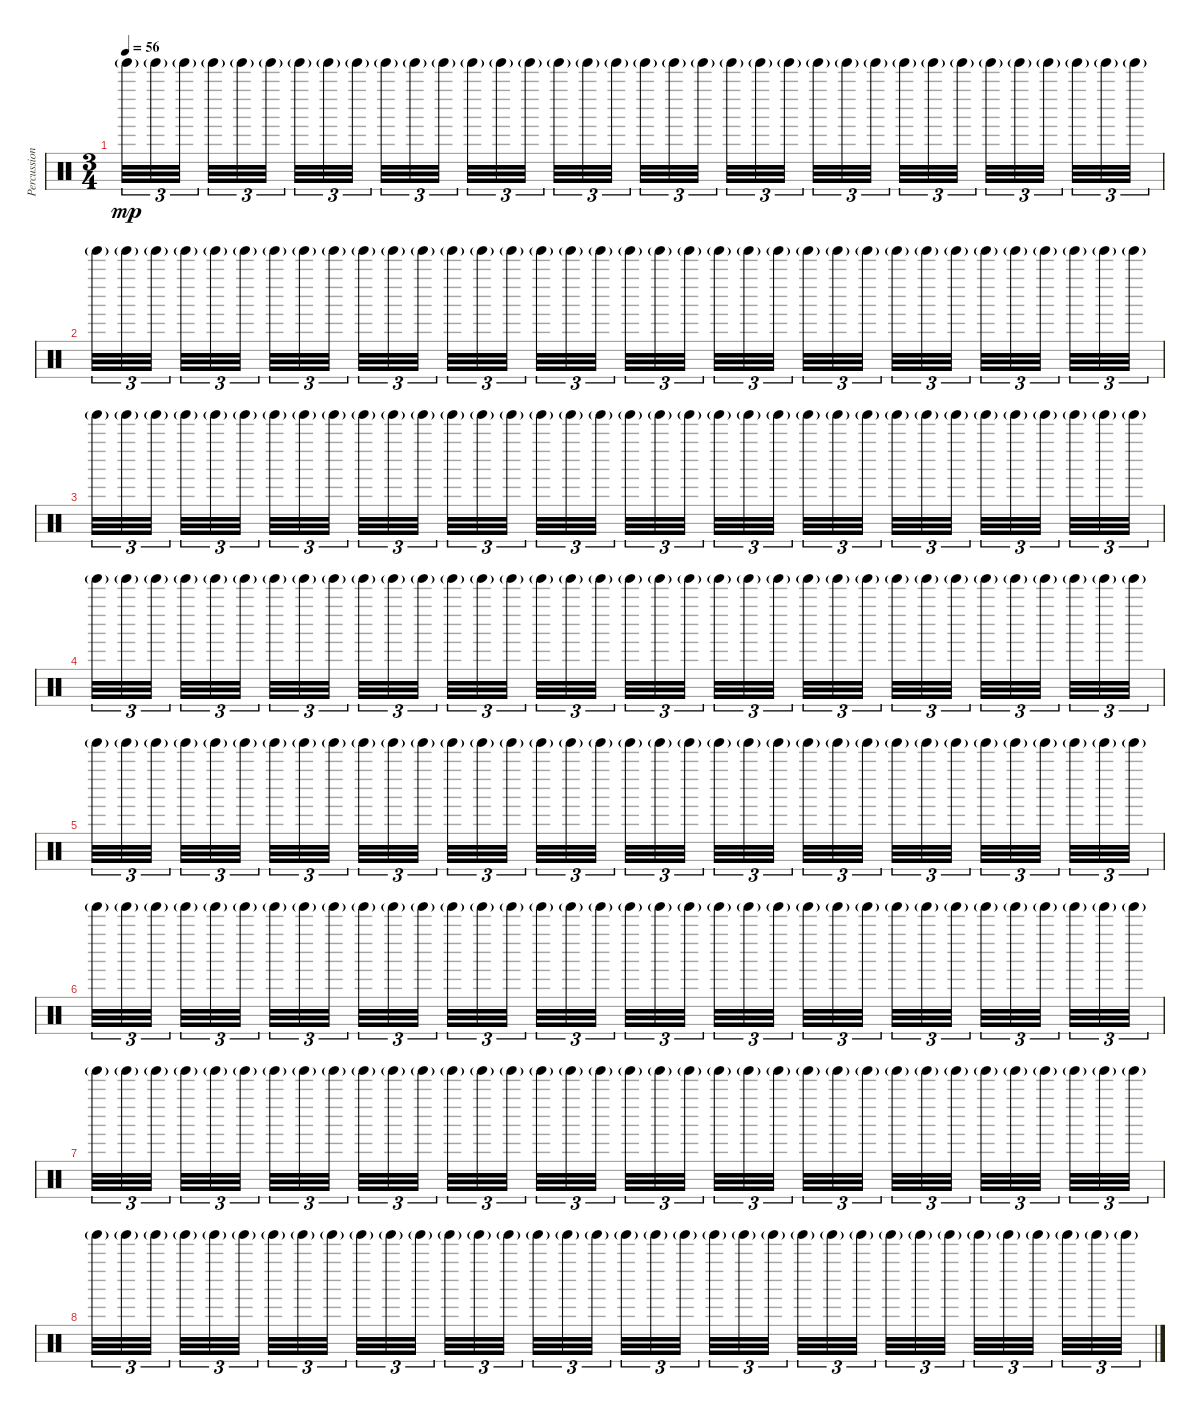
\track ("Percussion" "Percussion") {instrument percussion}
\staff {score}
\articulation defaults
\ts (3 4)
\tempo 56
\clef neutral
\ks c "Tinkle Bell (hit)"{g}.32{tu (3 2) dy mp} "Tinkle Bell (hit)"{g}.32{tu (3 2)} "Tinkle Bell (hit)"{g}.32{tu (3 2) beam splitsecondary} "Tinkle Bell (hit)"{g}.32{tu (3 2)} "Tinkle Bell (hit)"{g}.32{tu (3 2)} "Tinkle Bell (hit)"{g}.32{tu (3 2) beam splitsecondary} "Tinkle Bell (hit)"{g}.32{tu (3 2)} "Tinkle Bell (hit)"{g}.32{tu (3 2)} "Tinkle Bell (hit)"{g}.32{tu (3 2) beam splitsecondary} "Tinkle Bell (hit)"{g}.32{tu (3 2)} "Tinkle Bell (hit)"{g}.32{tu (3 2)} "Tinkle Bell (hit)"{g}.32{tu (3 2)} "Tinkle Bell (hit)"{g}.32{tu (3 2)} "Tinkle Bell (hit)"{g}.32{tu (3 2)} "Tinkle Bell (hit)"{g}.32{tu (3 2) beam splitsecondary} "Tinkle Bell (hit)"{g}.32{tu (3 2)} "Tinkle Bell (hit)"{g}.32{tu (3 2)} "Tinkle Bell (hit)"{g}.32{tu (3 2) beam splitsecondary} "Tinkle Bell (hit)"{g}.32{tu (3 2)} "Tinkle Bell (hit)"{g}.32{tu (3 2)} "Tinkle Bell (hit)"{g}.32{tu (3 2) beam splitsecondary} "Tinkle Bell (hit)"{g}.32{tu (3 2)} "Tinkle Bell (hit)"{g}.32{tu (3 2)} "Tinkle Bell (hit)"{g}.32{tu (3 2)} "Tinkle Bell (hit)"{g}.32{tu (3 2)} "Tinkle Bell (hit)"{g}.32{tu (3 2)} "Tinkle Bell (hit)"{g}.32{tu (3 2) beam splitsecondary} "Tinkle Bell (hit)"{g}.32{tu (3 2)} "Tinkle Bell (hit)"{g}.32{tu (3 2)} "Tinkle Bell (hit)"{g}.32{tu (3 2) beam splitsecondary} "Tinkle Bell (hit)"{g}.32{tu (3 2)} "Tinkle Bell (hit)"{g}.32{tu (3 2)} "Tinkle Bell (hit)"{g}.32{tu (3 2) beam splitsecondary} "Tinkle Bell (hit)"{g}.32{tu (3 2)} "Tinkle Bell (hit)"{g}.32{tu (3 2)} "Tinkle Bell (hit)"{g}.32{tu (3 2)}
|
"Tinkle Bell (hit)"{g}.32{tu (3 2)} "Tinkle Bell (hit)"{g}.32{tu (3 2)} "Tinkle Bell (hit)"{g}.32{tu (3 2) beam splitsecondary} "Tinkle Bell (hit)"{g}.32{tu (3 2)} "Tinkle Bell (hit)"{g}.32{tu (3 2)} "Tinkle Bell (hit)"{g}.32{tu (3 2) beam splitsecondary} "Tinkle Bell (hit)"{g}.32{tu (3 2)} "Tinkle Bell (hit)"{g}.32{tu (3 2)} "Tinkle Bell (hit)"{g}.32{tu (3 2) beam splitsecondary} "Tinkle Bell (hit)"{g}.32{tu (3 2)} "Tinkle Bell (hit)"{g}.32{tu (3 2)} "Tinkle Bell (hit)"{g}.32{tu (3 2)} "Tinkle Bell (hit)"{g}.32{tu (3 2)} "Tinkle Bell (hit)"{g}.32{tu (3 2) volume 4} "Tinkle Bell (hit)"{g}.32{tu (3 2) beam splitsecondary} "Tinkle Bell (hit)"{g}.32{tu (3 2)} "Tinkle Bell (hit)"{g}.32{tu (3 2)} "Tinkle Bell (hit)"{g}.32{tu (3 2) beam splitsecondary} "Tinkle Bell (hit)"{g}.32{tu (3 2)} "Tinkle Bell (hit)"{g}.32{tu (3 2)} "Tinkle Bell (hit)"{g}.32{tu (3 2) beam splitsecondary} "Tinkle Bell (hit)"{g}.32{tu (3 2)} "Tinkle Bell (hit)"{g}.32{tu (3 2)} "Tinkle Bell (hit)"{g}.32{tu (3 2)} "Tinkle Bell (hit)"{g}.32{tu (3 2)} "Tinkle Bell (hit)"{g}.32{tu (3 2)} "Tinkle Bell (hit)"{g}.32{tu (3 2) beam splitsecondary} "Tinkle Bell (hit)"{g}.32{tu (3 2)} "Tinkle Bell (hit)"{g}.32{tu (3 2)} "Tinkle Bell (hit)"{g}.32{tu (3 2) beam splitsecondary} "Tinkle Bell (hit)"{g}.32{tu (3 2)} "Tinkle Bell (hit)"{g}.32{tu (3 2)} "Tinkle Bell (hit)"{g}.32{tu (3 2) beam splitsecondary} "Tinkle Bell (hit)"{g}.32{tu (3 2)} "Tinkle Bell (hit)"{g}.32{tu (3 2)} "Tinkle Bell (hit)"{g}.32{tu (3 2)} |
"Tinkle Bell (hit)"{g}.32{tu (3 2)} "Tinkle Bell (hit)"{g}.32{tu (3 2)} "Tinkle Bell (hit)"{g}.32{tu (3 2) beam splitsecondary} "Tinkle Bell (hit)"{g}.32{tu (3 2)} "Tinkle Bell (hit)"{g}.32{tu (3 2)} "Tinkle Bell (hit)"{g}.32{tu (3 2) beam splitsecondary} "Tinkle Bell (hit)"{g}.32{tu (3 2)} "Tinkle Bell (hit)"{g}.32{tu (3 2)} "Tinkle Bell (hit)"{g}.32{tu (3 2) beam splitsecondary} "Tinkle Bell (hit)"{g}.32{tu (3 2)} "Tinkle Bell (hit)"{g}.32{tu (3 2)} "Tinkle Bell (hit)"{g}.32{tu (3 2)} "Tinkle Bell (hit)"{g}.32{tu (3 2)} "Tinkle Bell (hit)"{g}.32{tu (3 2)} "Tinkle Bell (hit)"{g}.32{tu (3 2) beam splitsecondary} "Tinkle Bell (hit)"{g}.32{tu (3 2)} "Tinkle Bell (hit)"{g}.32{tu (3 2)} "Tinkle Bell (hit)"{g}.32{tu (3 2) beam splitsecondary} "Tinkle Bell (hit)"{g}.32{tu (3 2)} "Tinkle Bell (hit)"{g}.32{tu (3 2)} "Tinkle Bell (hit)"{g}.32{tu (3 2) beam splitsecondary} "Tinkle Bell (hit)"{g}.32{tu (3 2)} "Tinkle Bell (hit)"{g}.32{tu (3 2)} "Tinkle Bell (hit)"{g}.32{tu (3 2)} "Tinkle Bell (hit)"{g}.32{tu (3 2)} "Tinkle Bell (hit)"{g}.32{tu (3 2)} "Tinkle Bell (hit)"{g}.32{tu (3 2) beam splitsecondary} "Tinkle Bell (hit)"{g}.32{tu (3 2)} "Tinkle Bell (hit)"{g}.32{tu (3 2)} "Tinkle Bell (hit)"{g}.32{tu (3 2) beam splitsecondary} "Tinkle Bell (hit)"{g}.32{tu (3 2)} "Tinkle Bell (hit)"{g}.32{tu (3 2)} "Tinkle Bell (hit)"{g}.32{tu (3 2) beam splitsecondary} "Tinkle Bell (hit)"{g}.32{tu (3 2)} "Tinkle Bell (hit)"{g}.32{tu (3 2)} "Tinkle Bell (hit)"{g}.32{tu (3 2)} |
"Tinkle Bell (hit)"{g}.32{tu (3 2)} "Tinkle Bell (hit)"{g}.32{tu (3 2)} "Tinkle Bell (hit)"{g}.32{tu (3 2) beam splitsecondary} "Tinkle Bell (hit)"{g}.32{tu (3 2)} "Tinkle Bell (hit)"{g}.32{tu (3 2)} "Tinkle Bell (hit)"{g}.32{tu (3 2) beam splitsecondary} "Tinkle Bell (hit)"{g}.32{tu (3 2)} "Tinkle Bell (hit)"{g}.32{tu (3 2)} "Tinkle Bell (hit)"{g}.32{tu (3 2) beam splitsecondary} "Tinkle Bell (hit)"{g}.32{tu (3 2)} "Tinkle Bell (hit)"{g}.32{tu (3 2)} "Tinkle Bell (hit)"{g}.32{tu (3 2)} "Tinkle Bell (hit)"{g}.32{tu (3 2)} "Tinkle Bell (hit)"{g}.32{tu (3 2)} "Tinkle Bell (hit)"{g}.32{tu (3 2) beam splitsecondary} "Tinkle Bell (hit)"{g}.32{tu (3 2)} "Tinkle Bell (hit)"{g}.32{tu (3 2)} "Tinkle Bell (hit)"{g}.32{tu (3 2) beam splitsecondary} "Tinkle Bell (hit)"{g}.32{tu (3 2)} "Tinkle Bell (hit)"{g}.32{tu (3 2)} "Tinkle Bell (hit)"{g}.32{tu (3 2) beam splitsecondary} "Tinkle Bell (hit)"{g}.32{tu (3 2)} "Tinkle Bell (hit)"{g}.32{tu (3 2)} "Tinkle Bell (hit)"{g}.32{tu (3 2)} "Tinkle Bell (hit)"{g}.32{tu (3 2)} "Tinkle Bell (hit)"{g}.32{tu (3 2)} "Tinkle Bell (hit)"{g}.32{tu (3 2) beam splitsecondary} "Tinkle Bell (hit)"{g}.32{tu (3 2)} "Tinkle Bell (hit)"{g}.32{tu (3 2)} "Tinkle Bell (hit)"{g}.32{tu (3 2) beam splitsecondary} "Tinkle Bell (hit)"{g}.32{tu (3 2)} "Tinkle Bell (hit)"{g}.32{tu (3 2)} "Tinkle Bell (hit)"{g}.32{tu (3 2) beam splitsecondary} "Tinkle Bell (hit)"{g}.32{tu (3 2)} "Tinkle Bell (hit)"{g}.32{tu (3 2)} "Tinkle Bell (hit)"{g}.32{tu (3 2)} |
"Tinkle Bell (hit)"{g}.32{tu (3 2)} "Tinkle Bell (hit)"{g}.32{tu (3 2)} "Tinkle Bell (hit)"{g}.32{tu (3 2) beam splitsecondary} "Tinkle Bell (hit)"{g}.32{tu (3 2)} "Tinkle Bell (hit)"{g}.32{tu (3 2)} "Tinkle Bell (hit)"{g}.32{tu (3 2) beam splitsecondary} "Tinkle Bell (hit)"{g}.32{tu (3 2)} "Tinkle Bell (hit)"{g}.32{tu (3 2)} "Tinkle Bell (hit)"{g}.32{tu (3 2) beam splitsecondary} "Tinkle Bell (hit)"{g}.32{tu (3 2)} "Tinkle Bell (hit)"{g}.32{tu (3 2)} "Tinkle Bell (hit)"{g}.32{tu (3 2)} "Tinkle Bell (hit)"{g}.32{tu (3 2)} "Tinkle Bell (hit)"{g}.32{tu (3 2)} "Tinkle Bell (hit)"{g}.32{tu (3 2) beam splitsecondary} "Tinkle Bell (hit)"{g}.32{tu (3 2)} "Tinkle Bell (hit)"{g}.32{tu (3 2)} "Tinkle Bell (hit)"{g}.32{tu (3 2) beam splitsecondary} "Tinkle Bell (hit)"{g}.32{tu (3 2)} "Tinkle Bell (hit)"{g}.32{tu (3 2)} "Tinkle Bell (hit)"{g}.32{tu (3 2) beam splitsecondary} "Tinkle Bell (hit)"{g}.32{tu (3 2)} "Tinkle Bell (hit)"{g}.32{tu (3 2)} "Tinkle Bell (hit)"{g}.32{tu (3 2)} "Tinkle Bell (hit)"{g}.32{tu (3 2)} "Tinkle Bell (hit)"{g}.32{tu (3 2)} "Tinkle Bell (hit)"{g}.32{tu (3 2) beam splitsecondary} "Tinkle Bell (hit)"{g}.32{tu (3 2)} "Tinkle Bell (hit)"{g}.32{tu (3 2)} "Tinkle Bell (hit)"{g}.32{tu (3 2) beam splitsecondary} "Tinkle Bell (hit)"{g}.32{tu (3 2)} "Tinkle Bell (hit)"{g}.32{tu (3 2)} "Tinkle Bell (hit)"{g}.32{tu (3 2) beam splitsecondary} "Tinkle Bell (hit)"{g}.32{tu (3 2)} "Tinkle Bell (hit)"{g}.32{tu (3 2)} "Tinkle Bell (hit)"{g}.32{tu (3 2)} |
"Tinkle Bell (hit)"{g}.32{tu (3 2)} "Tinkle Bell (hit)"{g}.32{tu (3 2)} "Tinkle Bell (hit)"{g}.32{tu (3 2) beam splitsecondary} "Tinkle Bell (hit)"{g}.32{tu (3 2)} "Tinkle Bell (hit)"{g}.32{tu (3 2)} "Tinkle Bell (hit)"{g}.32{tu (3 2) beam splitsecondary} "Tinkle Bell (hit)"{g}.32{tu (3 2)} "Tinkle Bell (hit)"{g}.32{tu (3 2)} "Tinkle Bell (hit)"{g}.32{tu (3 2) beam splitsecondary} "Tinkle Bell (hit)"{g}.32{tu (3 2)} "Tinkle Bell (hit)"{g}.32{tu (3 2)} "Tinkle Bell (hit)"{g}.32{tu (3 2)} "Tinkle Bell (hit)"{g}.32{tu (3 2)} "Tinkle Bell (hit)"{g}.32{tu (3 2)} "Tinkle Bell (hit)"{g}.32{tu (3 2) beam splitsecondary} "Tinkle Bell (hit)"{g}.32{tu (3 2)} "Tinkle Bell (hit)"{g}.32{tu (3 2)} "Tinkle Bell (hit)"{g}.32{tu (3 2) beam splitsecondary} "Tinkle Bell (hit)"{g}.32{tu (3 2)} "Tinkle Bell (hit)"{g}.32{tu (3 2)} "Tinkle Bell (hit)"{g}.32{tu (3 2) beam splitsecondary} "Tinkle Bell (hit)"{g}.32{tu (3 2)} "Tinkle Bell (hit)"{g}.32{tu (3 2)} "Tinkle Bell (hit)"{g}.32{tu (3 2)} "Tinkle Bell (hit)"{g}.32{tu (3 2)} "Tinkle Bell (hit)"{g}.32{tu (3 2)} "Tinkle Bell (hit)"{g}.32{tu (3 2) beam splitsecondary} "Tinkle Bell (hit)"{g}.32{tu (3 2)} "Tinkle Bell (hit)"{g}.32{tu (3 2)} "Tinkle Bell (hit)"{g}.32{tu (3 2) beam splitsecondary} "Tinkle Bell (hit)"{g}.32{tu (3 2)} "Tinkle Bell (hit)"{g}.32{tu (3 2)} "Tinkle Bell (hit)"{g}.32{tu (3 2) beam splitsecondary} "Tinkle Bell (hit)"{g}.32{tu (3 2)} "Tinkle Bell (hit)"{g}.32{tu (3 2)} "Tinkle Bell (hit)"{g}.32{tu (3 2)} |
"Tinkle Bell (hit)"{g}.32{tu (3 2)} "Tinkle Bell (hit)"{g}.32{tu (3 2)} "Tinkle Bell (hit)"{g}.32{tu (3 2) beam splitsecondary} "Tinkle Bell (hit)"{g}.32{tu (3 2)} "Tinkle Bell (hit)"{g}.32{tu (3 2)} "Tinkle Bell (hit)"{g}.32{tu (3 2) beam splitsecondary} "Tinkle Bell (hit)"{g}.32{tu (3 2)} "Tinkle Bell (hit)"{g}.32{tu (3 2)} "Tinkle Bell (hit)"{g}.32{tu (3 2) beam splitsecondary} "Tinkle Bell (hit)"{g}.32{tu (3 2)} "Tinkle Bell (hit)"{g}.32{tu (3 2)} "Tinkle Bell (hit)"{g}.32{tu (3 2)} "Tinkle Bell (hit)"{g}.32{tu (3 2)} "Tinkle Bell (hit)"{g}.32{tu (3 2)} "Tinkle Bell (hit)"{g}.32{tu (3 2) beam splitsecondary} "Tinkle Bell (hit)"{g}.32{tu (3 2)} "Tinkle Bell (hit)"{g}.32{tu (3 2)} "Tinkle Bell (hit)"{g}.32{tu (3 2) beam splitsecondary} "Tinkle Bell (hit)"{g}.32{tu (3 2)} "Tinkle Bell (hit)"{g}.32{tu (3 2)} "Tinkle Bell (hit)"{g}.32{tu (3 2) beam splitsecondary} "Tinkle Bell (hit)"{g}.32{tu (3 2)} "Tinkle Bell (hit)"{g}.32{tu (3 2)} "Tinkle Bell (hit)"{g}.32{tu (3 2)} "Tinkle Bell (hit)"{g}.32{tu (3 2)} "Tinkle Bell (hit)"{g}.32{tu (3 2)} "Tinkle Bell (hit)"{g}.32{tu (3 2) volume 6 beam splitsecondary} "Tinkle Bell (hit)"{g}.32{tu (3 2)} "Tinkle Bell (hit)"{g}.32{tu (3 2)} "Tinkle Bell (hit)"{g}.32{tu (3 2) beam splitsecondary} "Tinkle Bell (hit)"{g}.32{tu (3 2)} "Tinkle Bell (hit)"{g}.32{tu (3 2)} "Tinkle Bell (hit)"{g}.32{tu (3 2) beam splitsecondary} "Tinkle Bell (hit)"{g}.32{tu (3 2)} "Tinkle Bell (hit)"{g}.32{tu (3 2)} "Tinkle Bell (hit)"{g}.32{tu (3 2)} |
"Tinkle Bell (hit)"{g}.32{tu (3 2)} "Tinkle Bell (hit)"{g}.32{tu (3 2)} "Tinkle Bell (hit)"{g}.32{tu (3 2) beam splitsecondary} "Tinkle Bell (hit)"{g}.32{tu (3 2)} "Tinkle Bell (hit)"{g}.32{tu (3 2)} "Tinkle Bell (hit)"{g}.32{tu (3 2) beam splitsecondary} "Tinkle Bell (hit)"{g}.32{tu (3 2)} "Tinkle Bell (hit)"{g}.32{tu (3 2)} "Tinkle Bell (hit)"{g}.32{tu (3 2) beam splitsecondary} "Tinkle Bell (hit)"{g}.32{tu (3 2)} "Tinkle Bell (hit)"{g}.32{tu (3 2)} "Tinkle Bell (hit)"{g}.32{tu (3 2)} "Tinkle Bell (hit)"{g}.32{tu (3 2)} "Tinkle Bell (hit)"{g}.32{tu (3 2)} "Tinkle Bell (hit)"{g}.32{tu (3 2) beam splitsecondary} "Tinkle Bell (hit)"{g}.32{tu (3 2)} "Tinkle Bell (hit)"{g}.32{tu (3 2)} "Tinkle Bell (hit)"{g}.32{tu (3 2) beam splitsecondary} "Tinkle Bell (hit)"{g}.32{tu (3 2)} "Tinkle Bell (hit)"{g}.32{tu (3 2)} "Tinkle Bell (hit)"{g}.32{tu (3 2) beam splitsecondary} "Tinkle Bell (hit)"{g}.32{tu (3 2)} "Tinkle Bell (hit)"{g}.32{tu (3 2)} "Tinkle Bell (hit)"{g}.32{tu (3 2)} "Tinkle Bell (hit)"{g}.32{tu (3 2)} "Tinkle Bell (hit)"{g}.32{tu (3 2)} "Tinkle Bell (hit)"{g}.32{tu (3 2) beam splitsecondary} "Tinkle Bell (hit)"{g}.32{tu (3 2)} "Tinkle Bell (hit)"{g}.32{tu (3 2)} "Tinkle Bell (hit)"{g}.32{tu (3 2) beam splitsecondary} "Tinkle Bell (hit)"{g}.32{tu (3 2)} "Tinkle Bell (hit)"{g}.32{tu (3 2)} "Tinkle Bell (hit)"{g}.32{tu (3 2) beam splitsecondary} "Tinkle Bell (hit)"{g}.32{tu (3 2)} "Tinkle Bell (hit)"{g}.32{tu (3 2)} "Tinkle Bell (hit)"{g}.32{tu (3 2)}
